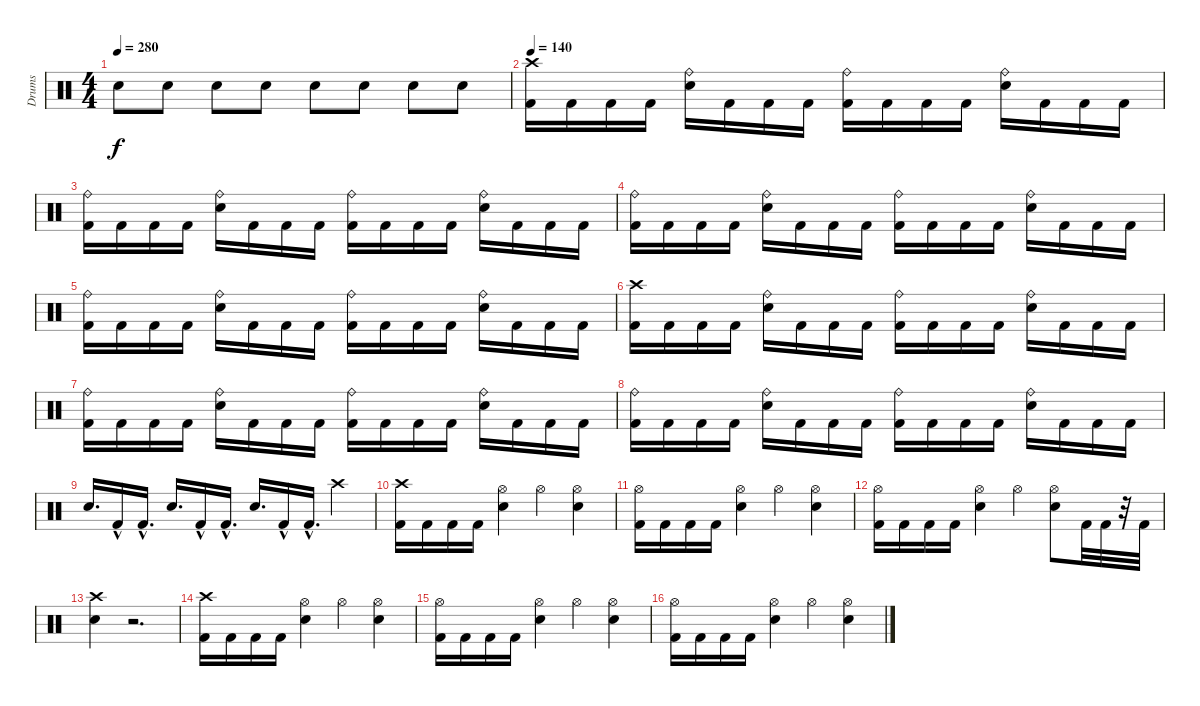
\track ("Drums" "Drums") {instrument percussion}
\staff {score}
\articulation defaults
\ts (4 4)
\tempo 280
\clef neutral
\ks c "Snare (hit) 2".8{dy f} "Snare (hit) 2".8 "Snare (hit) 2".8 "Snare (hit) 2".8 "Snare (hit) 2".8 "Snare (hit) 2".8 "Snare (hit) 2".8 "Snare (hit) 2".8
|
\tempo 140
("Crash high (hit)" "Kick (hit) 2").16 "Kick (hit) 2".16 "Kick (hit) 2".16 "Kick (hit) 2".16 ("Snare (hit) 2" "Ride (bell)").16 "Kick (hit) 2".16 "Kick (hit) 2".16 "Kick (hit) 2".16 ("Ride (bell)" "Kick (hit) 2").16 "Kick (hit) 2".16 "Kick (hit) 2".16 "Kick (hit) 2".16 ("Ride (bell)" "Snare (hit) 2").16 "Kick (hit) 2".16 "Kick (hit) 2".16 "Kick (hit) 2".16 |
("Kick (hit) 2" "Ride (bell)").16 "Kick (hit) 2".16 "Kick (hit) 2".16 "Kick (hit) 2".16 ("Snare (hit) 2" "Ride (bell)").16 "Kick (hit) 2".16 "Kick (hit) 2".16 "Kick (hit) 2".16 ("Ride (bell)" "Kick (hit) 2").16 "Kick (hit) 2".16 "Kick (hit) 2".16 "Kick (hit) 2".16 ("Snare (hit) 2" "Ride (bell)").16 "Kick (hit) 2".16 "Kick (hit) 2".16 "Kick (hit) 2".16 |
("Ride (bell)" "Kick (hit) 2").16 "Kick (hit) 2".16 "Kick (hit) 2".16 "Kick (hit) 2".16 ("Ride (bell)" "Snare (hit) 2").16 "Kick (hit) 2".16 "Kick (hit) 2".16 "Kick (hit) 2".16 ("Kick (hit) 2" "Ride (bell)").16 "Kick (hit) 2".16 "Kick (hit) 2".16 "Kick (hit) 2".16 ("Snare (hit) 2" "Ride (bell)").16 "Kick (hit) 2".16 "Kick (hit) 2".16 "Kick (hit) 2".16 |
("Ride (bell)" "Kick (hit) 2").16 "Kick (hit) 2".16 "Kick (hit) 2".16 "Kick (hit) 2".16 ("Ride (bell)" "Snare (hit) 2").16 "Kick (hit) 2".16 "Kick (hit) 2".16 "Kick (hit) 2".16 ("Kick (hit) 2" "Ride (bell)").16 "Kick (hit) 2".16 "Kick (hit) 2".16 "Kick (hit) 2".16 ("Snare (hit) 2" "Ride (bell)").16 "Kick (hit) 2".16 "Kick (hit) 2".16 "Kick (hit) 2".16 |
("Kick (hit) 2" "Crash high (hit)").16 "Kick (hit) 2".16 "Kick (hit) 2".16 "Kick (hit) 2".16 ("Snare (hit) 2" "Ride (bell)").16 "Kick (hit) 2".16 "Kick (hit) 2".16 "Kick (hit) 2".16 ("Kick (hit) 2" "Ride (bell)").16 "Kick (hit) 2".16 "Kick (hit) 2".16 "Kick (hit) 2".16 ("Ride (bell)" "Snare (hit) 2").16 "Kick (hit) 2".16 "Kick (hit) 2".16 "Kick (hit) 2".16 |
("Kick (hit) 2" "Ride (bell)").16 "Kick (hit) 2".16 "Kick (hit) 2".16 "Kick (hit) 2".16 ("Ride (bell)" "Snare (hit) 2").16 "Kick (hit) 2".16 "Kick (hit) 2".16 "Kick (hit) 2".16 ("Ride (bell)" "Kick (hit) 2").16 "Kick (hit) 2".16 "Kick (hit) 2".16 "Kick (hit) 2".16 ("Ride (bell)" "Snare (hit) 2").16 "Kick (hit) 2".16 "Kick (hit) 2".16 "Kick (hit) 2".16 |
("Kick (hit) 2" "Ride (bell)").16 "Kick (hit) 2".16 "Kick (hit) 2".16 "Kick (hit) 2".16 ("Ride (bell)" "Snare (hit) 2").16 "Kick (hit) 2".16 "Kick (hit) 2".16 "Kick (hit) 2".16 ("Ride (bell)" "Kick (hit) 2").16 "Kick (hit) 2".16 "Kick (hit) 2".16 "Kick (hit) 2".16 ("Snare (hit) 2" "Ride (bell)").16 "Kick (hit) 2".16 "Kick (hit) 2".16 "Kick (hit) 2".16 |
"Snare (hit) 2".16{d} "Kick (hit) 2"{hac}.16 "Kick (hit) 2"{hac}.16{d} "Snare (hit) 2".16{d} "Kick (hit) 2"{hac}.16 "Kick (hit) 2"{hac}.16{d} "Snare (hit) 2".16{d} "Kick (hit) 2"{hac}.16 "Kick (hit) 2"{hac}.16{d} "Crash high (hit)".4 |
("Kick (hit) 2" "Crash high (hit)").16 "Kick (hit) 2".16 "Kick (hit) 2".16 "Kick (hit) 2".16 ("Hi-Hat (open)" "Snare (hit) 2").4 "Hi-Hat (open)".4 ("Snare (hit) 2" "Hi-Hat (open)").4 |
("Hi-Hat (open)" "Kick (hit) 2").16 "Kick (hit) 2".16 "Kick (hit) 2".16 "Kick (hit) 2".16 ("Snare (hit) 2" "Hi-Hat (open)").4 "Hi-Hat (open)".4 ("Snare (hit) 2" "Hi-Hat (open)").4 |
("Kick (hit) 2" "Hi-Hat (open)").16 "Kick (hit) 2".16 "Kick (hit) 2".16 "Kick (hit) 2".16 ("Snare (hit) 2" "Hi-Hat (open)").4 "Hi-Hat (open)".4 ("Hi-Hat (open)" "Snare (hit) 2").8 "Kick (hit) 2".32 "Kick (hit) 2".32 r.32 "Kick (hit) 2".32 |
("Crash high (hit)" "Snare (hit) 2").4 r.2{d} |
("Kick (hit) 2" "Crash high (hit)").16 "Kick (hit) 2".16 "Kick (hit) 2".16 "Kick (hit) 2".16 ("Snare (hit) 2" "Hi-Hat (open)").4 "Hi-Hat (open)".4 ("Hi-Hat (open)" "Snare (hit) 2").4 |
("Hi-Hat (open)" "Kick (hit) 2").16 "Kick (hit) 2".16 "Kick (hit) 2".16 "Kick (hit) 2".16 ("Snare (hit) 2" "Hi-Hat (open)").4 "Hi-Hat (open)".4 ("Snare (hit) 2" "Hi-Hat (open)").4 |
("Hi-Hat (open)" "Kick (hit) 2").16 "Kick (hit) 2".16 "Kick (hit) 2".16 "Kick (hit) 2".16 ("Snare (hit) 2" "Hi-Hat (open)").4 "Hi-Hat (open)".4 ("Snare (hit) 2" "Hi-Hat (open)").4
